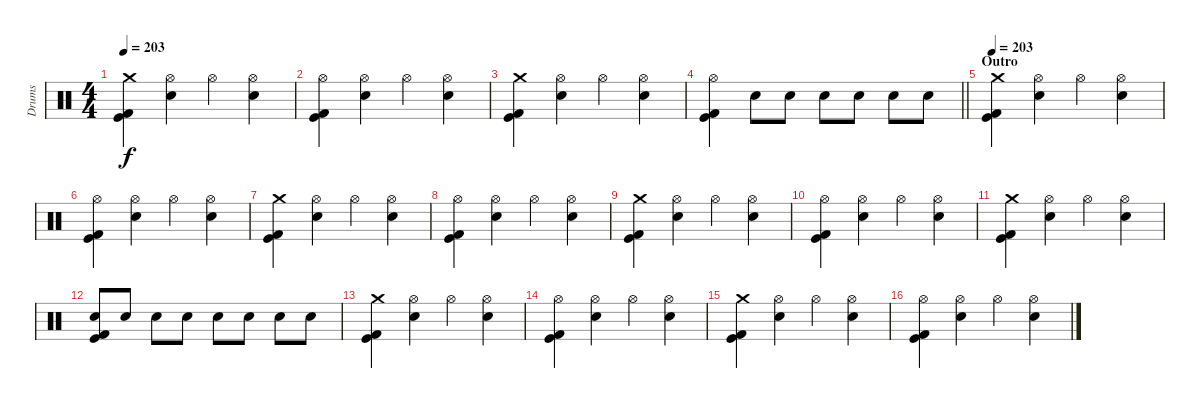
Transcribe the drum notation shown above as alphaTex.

\track ("Drums" "Drums") {instrument percussion}
\staff {score}
\articulation defaults
\ts (4 4)
\tempo 203
\clef neutral
\ks c
("Crash medium (hit)" "Kick (hit)" "Kick (hit) 2").4{dy f} ("Hi-Hat (open)" "Electric Snare (hit)").4 "Hi-Hat (open)".4 ("Hi-Hat (open)" "Electric Snare (hit)").4 |
("Hi-Hat (open)" "Kick (hit)" "Kick (hit) 2").4 ("Hi-Hat (open)" "Electric Snare (hit)").4 "Hi-Hat (open)".4 ("Hi-Hat (open)" "Electric Snare (hit)").4 |
("Crash medium (hit)" "Kick (hit)" "Kick (hit) 2").4 ("Hi-Hat (open)" "Electric Snare (hit)").4 "Hi-Hat (open)".4 ("Hi-Hat (open)" "Electric Snare (hit)").4 |
\barLineRight lightlight
("Hi-Hat (open)" "Kick (hit)" "Kick (hit) 2").4 "Electric Snare (hit)".8 "Electric Snare (hit)".8 "Electric Snare (hit)".8 "Electric Snare (hit)".8 "Electric Snare (hit)".8 "Electric Snare (hit)".8 |
\section ("" "Outro")
\tempo 203
("Crash medium (hit)" "Kick (hit)" "Kick (hit) 2").4 ("Hi-Hat (open)" "Electric Snare (hit)").4 "Hi-Hat (open)".4 ("Hi-Hat (open)" "Electric Snare (hit)").4 |
("Hi-Hat (open)" "Kick (hit)" "Kick (hit) 2").4 ("Hi-Hat (open)" "Electric Snare (hit)").4 "Hi-Hat (open)".4 ("Hi-Hat (open)" "Electric Snare (hit)").4 |
("Crash medium (hit)" "Kick (hit)" "Kick (hit) 2").4 ("Hi-Hat (open)" "Electric Snare (hit)").4 "Hi-Hat (open)".4 ("Hi-Hat (open)" "Electric Snare (hit)").4 |
("Hi-Hat (open)" "Kick (hit)" "Kick (hit) 2").4 ("Hi-Hat (open)" "Electric Snare (hit)").4 "Hi-Hat (open)".4 ("Hi-Hat (open)" "Electric Snare (hit)").4 |
("Crash medium (hit)" "Kick (hit)" "Kick (hit) 2").4 ("Hi-Hat (open)" "Electric Snare (hit)").4 "Hi-Hat (open)".4 ("Hi-Hat (open)" "Electric Snare (hit)").4 |
("Hi-Hat (open)" "Kick (hit)" "Kick (hit) 2").4 ("Hi-Hat (open)" "Electric Snare (hit)").4 "Hi-Hat (open)".4 ("Hi-Hat (open)" "Electric Snare (hit)").4 |
("Crash medium (hit)" "Kick (hit)" "Kick (hit) 2").4 ("Hi-Hat (open)" "Electric Snare (hit)").4 "Hi-Hat (open)".4 ("Hi-Hat (open)" "Electric Snare (hit)").4 |
("Electric Snare (hit)" "Kick (hit)" "Kick (hit) 2").8 "Electric Snare (hit)".8 "Electric Snare (hit)".8 "Electric Snare (hit)".8 "Electric Snare (hit)".8 "Electric Snare (hit)".8 "Electric Snare (hit)".8 "Electric Snare (hit)".8 |
("Crash medium (hit)" "Kick (hit)" "Kick (hit) 2").4 ("Hi-Hat (open)" "Electric Snare (hit)").4 "Hi-Hat (open)".4 ("Hi-Hat (open)" "Electric Snare (hit)").4 |
("Hi-Hat (open)" "Kick (hit)" "Kick (hit) 2").4 ("Hi-Hat (open)" "Electric Snare (hit)").4 "Hi-Hat (open)".4 ("Hi-Hat (open)" "Electric Snare (hit)").4 |
("Crash medium (hit)" "Kick (hit)" "Kick (hit) 2").4 ("Hi-Hat (open)" "Electric Snare (hit)").4 "Hi-Hat (open)".4 ("Hi-Hat (open)" "Electric Snare (hit)").4 |
("Hi-Hat (open)" "Kick (hit)" "Kick (hit) 2").4 ("Hi-Hat (open)" "Electric Snare (hit)").4 "Hi-Hat (open)".4 ("Hi-Hat (open)" "Electric Snare (hit)").4
